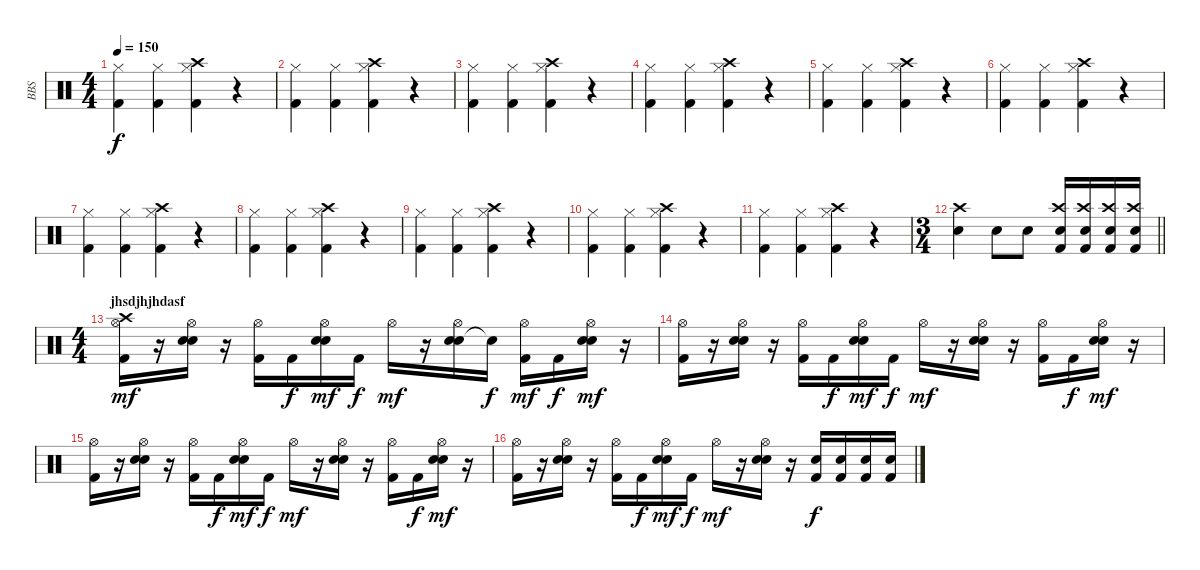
\track ("BBS" "BBS") {instrument percussion}
\staff {score}
\articulation defaults
\ts (4 4)
\tempo 150
\clef neutral
\ks c
("Hi-Hat (closed)" "Kick (hit) 2").4{dy f} ("Hi-Hat (closed)" "Kick (hit) 2").4 ("Hi-Hat (closed)" "Kick (hit) 2" "Crash high (hit)").4 r.4 |
("Hi-Hat (closed)" "Kick (hit) 2").4 ("Hi-Hat (closed)" "Kick (hit) 2").4 ("Hi-Hat (closed)" "Kick (hit) 2" "Crash high (hit)").4 r.4 |
("Hi-Hat (closed)" "Kick (hit) 2").4 ("Hi-Hat (closed)" "Kick (hit) 2").4 ("Hi-Hat (closed)" "Kick (hit) 2" "Crash high (hit)").4 r.4 |
("Hi-Hat (closed)" "Kick (hit) 2").4 ("Hi-Hat (closed)" "Kick (hit) 2").4 ("Hi-Hat (closed)" "Kick (hit) 2" "Crash high (hit)").4 r.4 |
("Hi-Hat (closed)" "Kick (hit) 2").4 ("Hi-Hat (closed)" "Kick (hit) 2").4 ("Hi-Hat (closed)" "Kick (hit) 2" "Crash high (hit)").4 r.4 |
("Hi-Hat (closed)" "Kick (hit) 2").4 ("Hi-Hat (closed)" "Kick (hit) 2").4 ("Hi-Hat (closed)" "Kick (hit) 2" "Crash high (hit)").4 r.4 |
("Hi-Hat (closed)" "Kick (hit) 2").4 ("Hi-Hat (closed)" "Kick (hit) 2").4 ("Hi-Hat (closed)" "Kick (hit) 2" "Crash high (hit)").4 r.4 |
("Hi-Hat (closed)" "Kick (hit) 2").4 ("Hi-Hat (closed)" "Kick (hit) 2").4 ("Hi-Hat (closed)" "Kick (hit) 2" "Crash high (hit)").4 r.4 |
("Hi-Hat (closed)" "Kick (hit) 2").4 ("Hi-Hat (closed)" "Kick (hit) 2").4 ("Hi-Hat (closed)" "Kick (hit) 2" "Crash high (hit)").4 r.4 |
("Hi-Hat (closed)" "Kick (hit) 2").4 ("Hi-Hat (closed)" "Kick (hit) 2").4 ("Hi-Hat (closed)" "Kick (hit) 2" "Crash high (hit)").4 r.4 |
("Hi-Hat (closed)" "Kick (hit) 2").4 ("Hi-Hat (closed)" "Kick (hit) 2").4 ("Hi-Hat (closed)" "Kick (hit) 2" "Crash high (hit)").4 r.4 |
\ts (3 4)
\barLineRight lightlight
("Crash high (hit)" "Electric Snare (hit)").4 "Electric Snare (hit)".8 "Electric Snare (hit)".8 ("Kick (hit) 2" "Electric Snare (hit)" "Crash high (hit)").16 ("Kick (hit) 2" "Electric Snare (hit)" "Crash high (hit)").16 ("Kick (hit) 2" "Electric Snare (hit)" "Crash high (hit)").16 ("Kick (hit) 2" "Electric Snare (hit)" "Crash high (hit)").16 |
\ts (4 4)
\section ("" "jhsdjhjhdasf")
("Kick (hit) 2" "Crash high (hit)" "Hi-Hat (open)").16{dy mf} r.16 ("Electric Snare (hit)" "Electric Snare (hit)" "Hi-Hat (open)").16 r.16 ("Kick (hit) 2" "Hi-Hat (open)").16 "Kick (hit) 2".16{dy f} ("Electric Snare (hit)" "Electric Snare (hit)" "Hi-Hat (open)").16{dy mf} "Kick (hit) 2".16{dy f} "Hi-Hat (open)".16{dy mf} r.16 ("Electric Snare (hit)" "Electric Snare (hit)" "Hi-Hat (open)").16 "Snare (hit)"{t}.16{dy f} ("Kick (hit) 2" "Hi-Hat (open)").16{dy mf} "Kick (hit) 2".16{dy f} ("Electric Snare (hit)" "Electric Snare (hit)" "Hi-Hat (open)").16{dy mf} r.16 |
("Kick (hit) 2" "Hi-Hat (open)").16 r.16 ("Electric Snare (hit)" "Electric Snare (hit)" "Hi-Hat (open)").16 r.16 ("Kick (hit) 2" "Hi-Hat (open)").16 "Kick (hit) 2".16{dy f} ("Electric Snare (hit)" "Electric Snare (hit)" "Hi-Hat (open)").16{dy mf} "Kick (hit) 2".16{dy f} "Hi-Hat (open)".16{dy mf} r.16 ("Electric Snare (hit)" "Electric Snare (hit)" "Hi-Hat (open)").16 r.16 ("Kick (hit) 2" "Hi-Hat (open)").16 "Kick (hit) 2".16{dy f} ("Electric Snare (hit)" "Electric Snare (hit)" "Hi-Hat (open)").16{dy mf} r.16 |
("Kick (hit) 2" "Hi-Hat (open)").16 r.16 ("Electric Snare (hit)" "Electric Snare (hit)" "Hi-Hat (open)").16 r.16 ("Kick (hit) 2" "Hi-Hat (open)").16 "Kick (hit) 2".16{dy f} ("Electric Snare (hit)" "Electric Snare (hit)" "Hi-Hat (open)").16{dy mf} "Kick (hit) 2".16{dy f} "Hi-Hat (open)".16{dy mf} r.16 ("Electric Snare (hit)" "Electric Snare (hit)" "Hi-Hat (open)").16 r.16 ("Kick (hit) 2" "Hi-Hat (open)").16 "Kick (hit) 2".16{dy f} ("Electric Snare (hit)" "Electric Snare (hit)" "Hi-Hat (open)").16{dy mf} r.16 |
("Kick (hit) 2" "Hi-Hat (open)").16 r.16 ("Electric Snare (hit)" "Electric Snare (hit)" "Hi-Hat (open)").16 r.16 ("Kick (hit) 2" "Hi-Hat (open)").16 "Kick (hit) 2".16{dy f} ("Electric Snare (hit)" "Electric Snare (hit)" "Hi-Hat (open)").16{dy mf} "Kick (hit) 2".16{dy f} "Hi-Hat (open)".16{dy mf} r.16 ("Electric Snare (hit)" "Electric Snare (hit)" "Hi-Hat (open)").16 r.16 ("Kick (hit) 2" "Electric Snare (hit)").16{dy f} ("Kick (hit) 2" "Electric Snare (hit)").16 ("Kick (hit) 2" "Electric Snare (hit)").16 ("Kick (hit) 2" "Electric Snare (hit)").16
